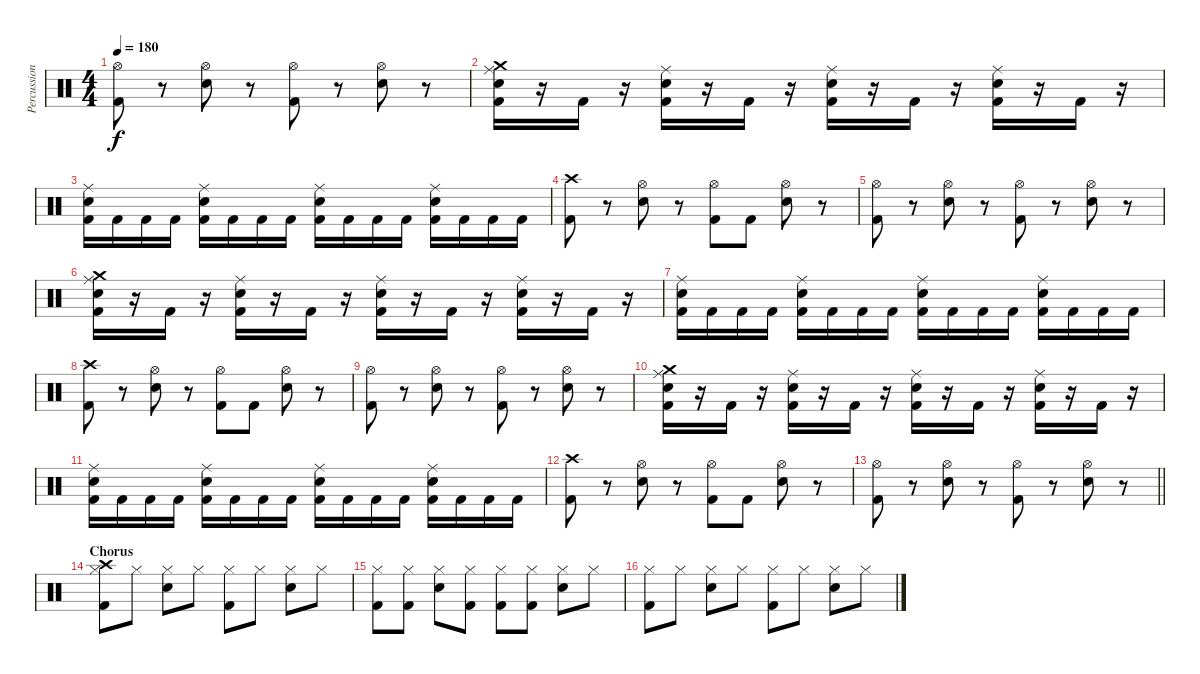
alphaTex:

\track ("Percussion" "Percussion") {instrument percussion}
\staff {score}
\articulation defaults
\ts (4 4)
\tempo 180
\clef neutral
\ks c
("Hi-Hat (open)" "Kick (hit) 2").8{dy f} r.8 ("Hi-Hat (open)" "Snare (hit) 2").8 r.8 ("Hi-Hat (open)" "Kick (hit) 2").8 r.8 ("Hi-Hat (open)" "Snare (hit) 2").8 r.8 |
("Crash medium (hit)" "Ride (middle)" "Snare (hit) 2" "Kick (hit) 2").16 r.16 "Kick (hit) 2".16 r.16 ("Ride (middle)" "Snare (hit) 2" "Kick (hit) 2").16 r.16 "Kick (hit) 2".16 r.16 ("Ride (middle)" "Snare (hit) 2" "Kick (hit) 2").16 r.16 "Kick (hit) 2".16 r.16 ("Ride (middle)" "Snare (hit) 2" "Kick (hit) 2").16 r.16 "Kick (hit) 2".16 r.16 |
("Ride (middle)" "Snare (hit) 2" "Kick (hit) 2").16 "Kick (hit) 2".16 "Kick (hit) 2".16 "Kick (hit) 2".16 ("Ride (middle)" "Snare (hit) 2" "Kick (hit) 2").16 "Kick (hit) 2".16 "Kick (hit) 2".16 "Kick (hit) 2".16 ("Ride (middle)" "Snare (hit) 2" "Kick (hit) 2").16 "Kick (hit) 2".16 "Kick (hit) 2".16 "Kick (hit) 2".16 ("Ride (middle)" "Snare (hit) 2" "Kick (hit) 2").16 "Kick (hit) 2".16 "Kick (hit) 2".16 "Kick (hit) 2".16 |
("Crash high (hit)" "Kick (hit) 2").8 r.8 ("Hi-Hat (open)" "Snare (hit) 2").8 r.8 ("Hi-Hat (open)" "Kick (hit) 2").8 "Kick (hit) 2".8 ("Hi-Hat (open)" "Snare (hit) 2").8 r.8 |
("Hi-Hat (open)" "Kick (hit) 2").8 r.8 ("Hi-Hat (open)" "Snare (hit) 2").8 r.8 ("Hi-Hat (open)" "Kick (hit) 2").8 r.8 ("Hi-Hat (open)" "Snare (hit) 2").8 r.8 |
("Crash medium (hit)" "Ride (middle)" "Snare (hit) 2" "Kick (hit) 2").16 r.16 "Kick (hit) 2".16 r.16 ("Ride (middle)" "Snare (hit) 2" "Kick (hit) 2").16 r.16 "Kick (hit) 2".16 r.16 ("Ride (middle)" "Snare (hit) 2" "Kick (hit) 2").16 r.16 "Kick (hit) 2".16 r.16 ("Ride (middle)" "Snare (hit) 2" "Kick (hit) 2").16 r.16 "Kick (hit) 2".16 r.16 |
("Ride (middle)" "Snare (hit) 2" "Kick (hit) 2").16 "Kick (hit) 2".16 "Kick (hit) 2".16 "Kick (hit) 2".16 ("Ride (middle)" "Snare (hit) 2" "Kick (hit) 2").16 "Kick (hit) 2".16 "Kick (hit) 2".16 "Kick (hit) 2".16 ("Ride (middle)" "Snare (hit) 2" "Kick (hit) 2").16 "Kick (hit) 2".16 "Kick (hit) 2".16 "Kick (hit) 2".16 ("Ride (middle)" "Snare (hit) 2" "Kick (hit) 2").16 "Kick (hit) 2".16 "Kick (hit) 2".16 "Kick (hit) 2".16 |
("Crash high (hit)" "Kick (hit) 2").8 r.8 ("Hi-Hat (open)" "Snare (hit) 2").8 r.8 ("Hi-Hat (open)" "Kick (hit) 2").8 "Kick (hit) 2".8 ("Hi-Hat (open)" "Snare (hit) 2").8 r.8 |
("Hi-Hat (open)" "Kick (hit) 2").8 r.8 ("Hi-Hat (open)" "Snare (hit) 2").8 r.8 ("Hi-Hat (open)" "Kick (hit) 2").8 r.8 ("Hi-Hat (open)" "Snare (hit) 2").8 r.8 |
("Crash medium (hit)" "Ride (middle)" "Snare (hit) 2" "Kick (hit) 2").16 r.16 "Kick (hit) 2".16 r.16 ("Ride (middle)" "Snare (hit) 2" "Kick (hit) 2").16 r.16 "Kick (hit) 2".16 r.16 ("Ride (middle)" "Snare (hit) 2" "Kick (hit) 2").16 r.16 "Kick (hit) 2".16 r.16 ("Ride (middle)" "Snare (hit) 2" "Kick (hit) 2").16 r.16 "Kick (hit) 2".16 r.16 |
("Ride (middle)" "Snare (hit) 2" "Kick (hit) 2").16 "Kick (hit) 2".16 "Kick (hit) 2".16 "Kick (hit) 2".16 ("Ride (middle)" "Snare (hit) 2" "Kick (hit) 2").16 "Kick (hit) 2".16 "Kick (hit) 2".16 "Kick (hit) 2".16 ("Ride (middle)" "Snare (hit) 2" "Kick (hit) 2").16 "Kick (hit) 2".16 "Kick (hit) 2".16 "Kick (hit) 2".16 ("Ride (middle)" "Snare (hit) 2" "Kick (hit) 2").16 "Kick (hit) 2".16 "Kick (hit) 2".16 "Kick (hit) 2".16 |
("Crash high (hit)" "Kick (hit) 2").8 r.8 ("Hi-Hat (open)" "Snare (hit) 2").8 r.8 ("Hi-Hat (open)" "Kick (hit) 2").8 "Kick (hit) 2".8 ("Hi-Hat (open)" "Snare (hit) 2").8 r.8 |
\barLineRight lightlight
("Hi-Hat (open)" "Kick (hit) 2").8 r.8 ("Hi-Hat (open)" "Snare (hit) 2").8 r.8 ("Hi-Hat (open)" "Kick (hit) 2").8 r.8 ("Hi-Hat (open)" "Snare (hit) 2").8 r.8 |
\section ("" "Chorus")
("Crash high (hit)" "Hi-Hat (closed)" "Kick (hit) 2").8 "Hi-Hat (closed)".8 ("Hi-Hat (closed)" "Snare (hit) 2").8 "Hi-Hat (closed)".8 ("Hi-Hat (closed)" "Kick (hit) 2").8 "Hi-Hat (closed)".8 ("Hi-Hat (closed)" "Snare (hit) 2").8 "Hi-Hat (closed)".8 |
("Hi-Hat (closed)" "Kick (hit) 2").8 ("Hi-Hat (closed)" "Kick (hit) 2").8 ("Hi-Hat (closed)" "Snare (hit) 2").8 ("Hi-Hat (closed)" "Kick (hit) 2").8 ("Hi-Hat (closed)" "Kick (hit) 2").8 ("Hi-Hat (closed)" "Kick (hit) 2").8 ("Hi-Hat (closed)" "Snare (hit) 2").8 "Hi-Hat (closed)".8 |
("Hi-Hat (closed)" "Kick (hit) 2").8 "Hi-Hat (closed)".8 ("Hi-Hat (closed)" "Snare (hit) 2").8 "Hi-Hat (closed)".8 ("Hi-Hat (closed)" "Kick (hit) 2").8 "Hi-Hat (closed)".8 ("Hi-Hat (closed)" "Snare (hit) 2").8 "Hi-Hat (closed)".8
